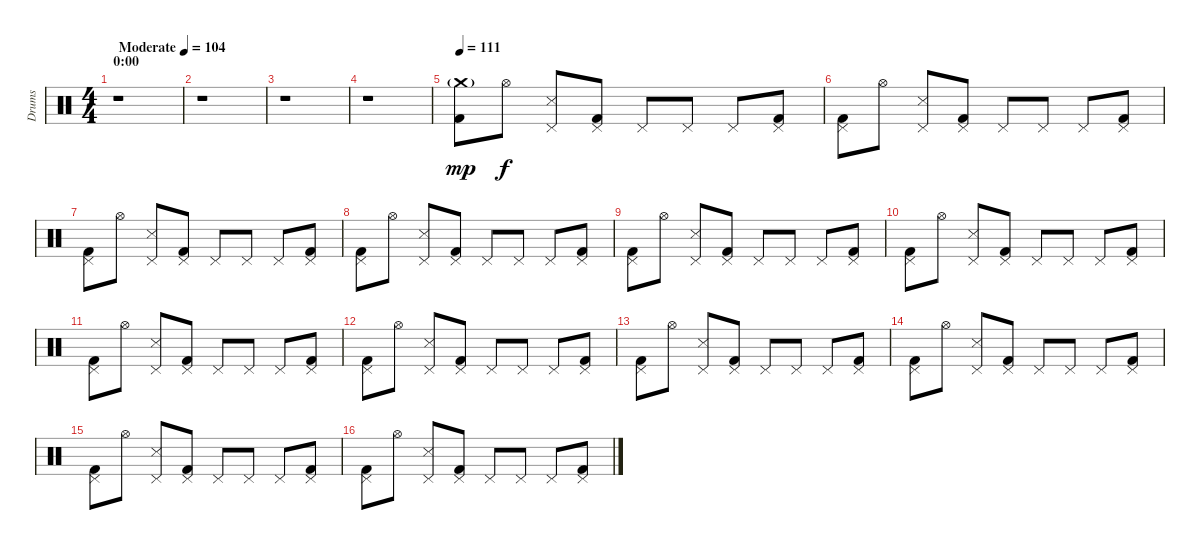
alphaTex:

\track ("Drums" "Drums") {instrument percussion}
\staff {score}
\articulation defaults
\ts (4 4)
\section ("" "0:00")
\tempo (104 "Moderate")
\clef neutral
\ks c
r.1{dy mp} |
r.1 |
r.1 |
r.1 |
\tempo 111
("Crash medium (hit)"{g} "Kick (hit) 2").8{volume 10} "Hi-Hat (open)".8{dy f} ("Pedal Hi-Hat (hit)" "Snare (side stick) 3").8 ("Pedal Hi-Hat (hit)" "Kick (hit) 2").8 "Pedal Hi-Hat (hit)".8 "Pedal Hi-Hat (hit)".8 "Pedal Hi-Hat (hit)".8 ("Pedal Hi-Hat (hit)" "Kick (hit) 2").8 |
("Pedal Hi-Hat (hit)" "Kick (hit) 2").8 "Hi-Hat (open)".8 ("Pedal Hi-Hat (hit)" "Snare (side stick) 3").8 ("Pedal Hi-Hat (hit)" "Kick (hit) 2").8 "Pedal Hi-Hat (hit)".8 "Pedal Hi-Hat (hit)".8 "Pedal Hi-Hat (hit)".8 ("Pedal Hi-Hat (hit)" "Kick (hit) 2").8 |
("Pedal Hi-Hat (hit)" "Kick (hit) 2").8 "Hi-Hat (open)".8 ("Pedal Hi-Hat (hit)" "Snare (side stick) 3").8 ("Pedal Hi-Hat (hit)" "Kick (hit) 2").8 "Pedal Hi-Hat (hit)".8 "Pedal Hi-Hat (hit)".8 "Pedal Hi-Hat (hit)".8 ("Pedal Hi-Hat (hit)" "Kick (hit) 2").8 |
("Pedal Hi-Hat (hit)" "Kick (hit) 2").8 "Hi-Hat (open)".8 ("Pedal Hi-Hat (hit)" "Snare (side stick) 3").8 ("Pedal Hi-Hat (hit)" "Kick (hit) 2").8 "Pedal Hi-Hat (hit)".8 "Pedal Hi-Hat (hit)".8 "Pedal Hi-Hat (hit)".8 ("Pedal Hi-Hat (hit)" "Kick (hit) 2").8 |
("Pedal Hi-Hat (hit)" "Kick (hit) 2").8{volume 12} "Hi-Hat (open)".8 ("Pedal Hi-Hat (hit)" "Snare (side stick) 3").8 ("Pedal Hi-Hat (hit)" "Kick (hit) 2").8 "Pedal Hi-Hat (hit)".8 "Pedal Hi-Hat (hit)".8 "Pedal Hi-Hat (hit)".8 ("Pedal Hi-Hat (hit)" "Kick (hit) 2").8 |
("Pedal Hi-Hat (hit)" "Kick (hit) 2").8 "Hi-Hat (open)".8 ("Pedal Hi-Hat (hit)" "Snare (side stick) 3").8 ("Pedal Hi-Hat (hit)" "Kick (hit) 2").8 "Pedal Hi-Hat (hit)".8 "Pedal Hi-Hat (hit)".8 "Pedal Hi-Hat (hit)".8 ("Pedal Hi-Hat (hit)" "Kick (hit) 2").8 |
("Pedal Hi-Hat (hit)" "Kick (hit) 2").8 "Hi-Hat (open)".8 ("Pedal Hi-Hat (hit)" "Snare (side stick) 3").8 ("Pedal Hi-Hat (hit)" "Kick (hit) 2").8 "Pedal Hi-Hat (hit)".8 "Pedal Hi-Hat (hit)".8 "Pedal Hi-Hat (hit)".8 ("Pedal Hi-Hat (hit)" "Kick (hit) 2").8 |
("Pedal Hi-Hat (hit)" "Kick (hit) 2").8 "Hi-Hat (open)".8 ("Pedal Hi-Hat (hit)" "Snare (side stick) 3").8 ("Pedal Hi-Hat (hit)" "Kick (hit) 2").8 "Pedal Hi-Hat (hit)".8 "Pedal Hi-Hat (hit)".8 "Pedal Hi-Hat (hit)".8 ("Pedal Hi-Hat (hit)" "Kick (hit) 2").8 |
("Pedal Hi-Hat (hit)" "Kick (hit) 2").8 "Hi-Hat (open)".8 ("Pedal Hi-Hat (hit)" "Snare (side stick) 3").8 ("Pedal Hi-Hat (hit)" "Kick (hit) 2").8 "Pedal Hi-Hat (hit)".8 "Pedal Hi-Hat (hit)".8 "Pedal Hi-Hat (hit)".8 ("Pedal Hi-Hat (hit)" "Kick (hit) 2").8 |
("Pedal Hi-Hat (hit)" "Kick (hit) 2").8 "Hi-Hat (open)".8 ("Pedal Hi-Hat (hit)" "Snare (side stick) 3").8 ("Pedal Hi-Hat (hit)" "Kick (hit) 2").8 "Pedal Hi-Hat (hit)".8 "Pedal Hi-Hat (hit)".8 "Pedal Hi-Hat (hit)".8 ("Pedal Hi-Hat (hit)" "Kick (hit) 2").8 |
("Pedal Hi-Hat (hit)" "Kick (hit) 2").8 "Hi-Hat (open)".8 ("Pedal Hi-Hat (hit)" "Snare (side stick) 3").8 ("Pedal Hi-Hat (hit)" "Kick (hit) 2").8 "Pedal Hi-Hat (hit)".8 "Pedal Hi-Hat (hit)".8 "Pedal Hi-Hat (hit)".8 ("Pedal Hi-Hat (hit)" "Kick (hit) 2").8 |
("Pedal Hi-Hat (hit)" "Kick (hit) 2").8 "Hi-Hat (open)".8 ("Pedal Hi-Hat (hit)" "Snare (side stick) 3").8 ("Pedal Hi-Hat (hit)" "Kick (hit) 2").8 "Pedal Hi-Hat (hit)".8 "Pedal Hi-Hat (hit)".8 "Pedal Hi-Hat (hit)".8 ("Pedal Hi-Hat (hit)" "Kick (hit) 2").8
